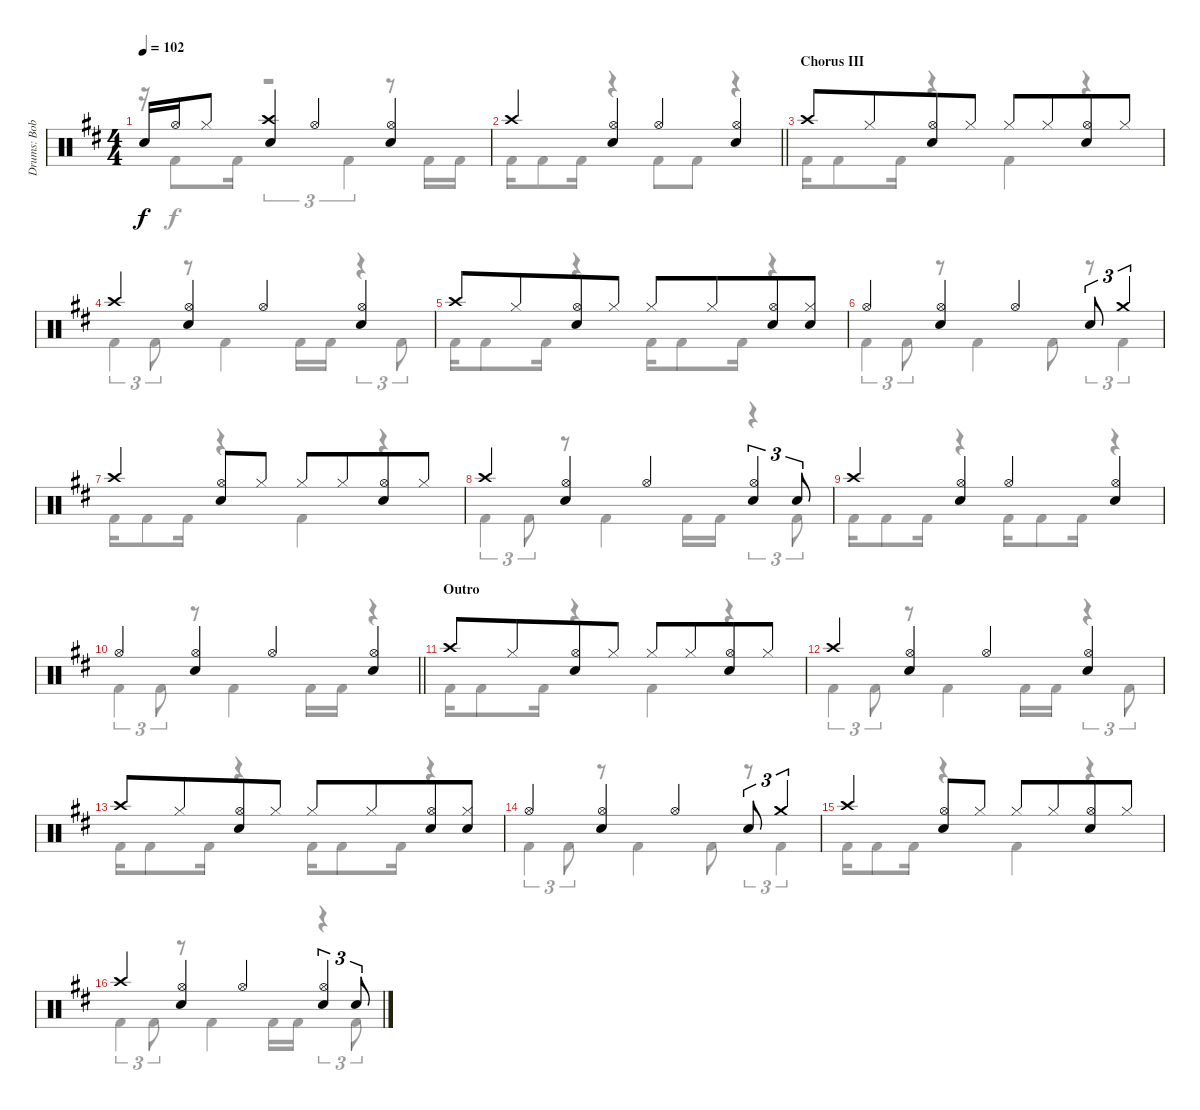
\track ("Drums: Bobby" "Drums: Bob") {instrument percussion}
\staff {score}
\articulation defaults
\voice
\ts (4 4)
\tempo 102
\clef neutral
\ks d "Snare (hit) 2".16{dy f} "Hi-Hat (open)".16 "Hi-Hat (closed)".8
("Crash high (hit)" "Snare (hit) 2").4 "Hi-Hat (open)".4 ("Hi-Hat (open)" "Snare (hit) 2").4 |
\barLineRight lightlight "Crash high (hit)".4
("Hi-Hat (open)" "Snare (hit) 2").4 "Hi-Hat (open)".4 ("Hi-Hat (open)" "Snare (hit) 2").4 |
\section ("" "Chorus III")
"Crash high (hit)".8 "Hi-Hat (closed)".8{beam merge} ("Hi-Hat (open)" "Snare (hit) 2").8 "Hi-Hat (closed)".8 "Hi-Hat (closed)".8 "Hi-Hat (closed)".8{beam merge} ("Hi-Hat (open)" "Snare (hit) 2").8 "Hi-Hat (closed)".8 |
"Crash high (hit)".4 ("Hi-Hat (open)" "Snare (hit) 2").4 "Hi-Hat (open)".4 ("Hi-Hat (open)" "Snare (hit) 2").4 |
"Crash high (hit)".8 "Hi-Hat (closed)".8{beam merge} ("Hi-Hat (open)" "Snare (hit) 2").8 "Hi-Hat (closed)".8 "Hi-Hat (closed)".8 "Hi-Hat (closed)".8{beam merge} ("Hi-Hat (open)" "Snare (hit) 2").8 ("Hi-Hat (closed)" "Snare (hit)").8 |
"Hi-Hat (open)".4 ("Hi-Hat (open)" "Snare (hit) 2").4 "Hi-Hat (open)".4 "Snare (hit) 2".8{tu (3 2)} "Crash medium (hit)".4{tu (3 2)} |
"Crash high (hit)".4{beam merge} ("Hi-Hat (open)" "Snare (hit) 2").8 "Hi-Hat (closed)".8 "Hi-Hat (closed)".8 "Hi-Hat (closed)".8{beam merge} ("Hi-Hat (open)" "Snare (hit) 2").8 "Hi-Hat (closed)".8 |
"Crash high (hit)".4 ("Hi-Hat (open)" "Snare (hit) 2").4 "Hi-Hat (open)".4 ("Hi-Hat (open)" "Snare (hit) 2").4{tu (3 2)} "Snare (hit) 2".8{tu (3 2)} |
"Crash high (hit)".4{beam merge} ("Hi-Hat (open)" "Snare (hit) 2").4 "Hi-Hat (open)".4{beam merge} ("Hi-Hat (open)" "Snare (hit) 2").4 |
\barLineRight lightlight "Hi-Hat (open)".4{beam merge}
("Hi-Hat (open)" "Snare (hit) 2").4 "Hi-Hat (open)".4{beam merge} ("Hi-Hat (open)" "Snare (hit) 2").4 |
\section ("" "Outro")
"Crash high (hit)".8 "Hi-Hat (closed)".8{beam merge} ("Hi-Hat (open)" "Snare (hit) 2").8 "Hi-Hat (closed)".8 "Hi-Hat (closed)".8 "Hi-Hat (closed)".8{beam merge} ("Hi-Hat (open)" "Snare (hit) 2").8 "Hi-Hat (closed)".8 |
"Crash high (hit)".4 ("Hi-Hat (open)" "Snare (hit) 2").4 "Hi-Hat (open)".4 ("Hi-Hat (open)" "Snare (hit) 2").4 |
"Crash high (hit)".8 "Hi-Hat (closed)".8{beam merge} ("Hi-Hat (open)" "Snare (hit) 2").8 "Hi-Hat (closed)".8 "Hi-Hat (closed)".8 "Hi-Hat (closed)".8{beam merge} ("Hi-Hat (open)" "Snare (hit) 2").8 ("Hi-Hat (closed)" "Snare (hit)").8 |
"Hi-Hat (open)".4 ("Hi-Hat (open)" "Snare (hit) 2").4 "Hi-Hat (open)".4 "Snare (hit) 2".8{tu (3 2)} "Crash medium (hit)".4{tu (3 2)} |
"Crash high (hit)".4{beam merge} ("Hi-Hat (open)" "Snare (hit) 2").8 "Hi-Hat (closed)".8 "Hi-Hat (closed)".8 "Hi-Hat (closed)".8{beam merge} ("Hi-Hat (open)" "Snare (hit) 2").8 "Hi-Hat (closed)".8 |
"Crash high (hit)".4 ("Hi-Hat (open)" "Snare (hit) 2").4 "Hi-Hat (open)".4 ("Hi-Hat (open)" "Snare (hit) 2").4{tu (3 2)} "Snare (hit) 2".8{tu (3 2)}
\voice
\clef neutral
\ottava regular
\simile none
\ks d
r.16{dy f} "Kick (hit) 2".8 "Kick (hit) 2".16 r.2{tu (3 2)} "Kick (hit) 2".4{tu (3 2)} r.8 "Kick (hit) 2".16 "Kick (hit) 2".16 |
\barLineRight lightlight "Kick (hit) 2".16 "Kick (hit) 2".8 "Kick (hit) 2".16
r.4 "Kick (hit) 2".8 "Kick (hit) 2".8 r.4 |
"Kick (hit) 2".16 "Kick (hit) 2".8 "Kick (hit) 2".16 r.4 "Kick (hit) 2".4 r.4 |
"Kick (hit) 2".4{tu (3 2)} "Kick (hit) 2".8{tu (3 2)} r.8 "Kick (hit) 2".4 "Kick (hit) 2".16 "Kick (hit) 2".16 r.4{tu (3 2)} "Kick (hit) 2".8{tu (3 2)} |
"Kick (hit) 2".16 "Kick (hit) 2".8 "Kick (hit) 2".16 r.4 "Kick (hit) 2".16 "Kick (hit) 2".8 "Kick (hit) 2".16 r.4 |
"Kick (hit) 2".4{tu (3 2)} "Kick (hit) 2".8{tu (3 2)} r.8 "Kick (hit) 2".4 "Kick (hit) 2".8 r.8{tu (3 2)} "Kick (hit) 2".4{tu (3 2)} |
"Kick (hit) 2".16 "Kick (hit) 2".8 "Kick (hit) 2".16 r.4 "Kick (hit) 2".4 r.4 |
"Kick (hit) 2".4{tu (3 2)} "Kick (hit) 2".8{tu (3 2)} r.8 "Kick (hit) 2".4 "Kick (hit) 2".16 "Kick (hit) 2".16 r.4{tu (3 2)} "Kick (hit) 2".8{tu (3 2)} |
"Kick (hit) 2".16 "Kick (hit) 2".8 "Kick (hit) 2".16 r.4 "Kick (hit) 2".16 "Kick (hit) 2".8 "Kick (hit) 2".16 r.4 |
\barLineRight lightlight "Kick (hit) 2".4{tu (3 2)} "Kick (hit) 2".8{tu (3 2)}
r.8 "Kick (hit) 2".4 "Kick (hit) 2".16 "Kick (hit) 2".16 r.4 |
"Kick (hit) 2".16 "Kick (hit) 2".8 "Kick (hit) 2".16 r.4 "Kick (hit) 2".4 r.4 |
"Kick (hit) 2".4{tu (3 2)} "Kick (hit) 2".8{tu (3 2)} r.8 "Kick (hit) 2".4 "Kick (hit) 2".16 "Kick (hit) 2".16 r.4{tu (3 2)} "Kick (hit) 2".8{tu (3 2)} |
"Kick (hit) 2".16 "Kick (hit) 2".8 "Kick (hit) 2".16 r.4 "Kick (hit) 2".16 "Kick (hit) 2".8 "Kick (hit) 2".16 r.4 |
"Kick (hit) 2".4{tu (3 2)} "Kick (hit) 2".8{tu (3 2)} r.8 "Kick (hit) 2".4 "Kick (hit) 2".8 r.8{tu (3 2)} "Kick (hit) 2".4{tu (3 2)} |
"Kick (hit) 2".16 "Kick (hit) 2".8 "Kick (hit) 2".16 r.4 "Kick (hit) 2".4 r.4 |
"Kick (hit) 2".4{tu (3 2)} "Kick (hit) 2".8{tu (3 2)} r.8 "Kick (hit) 2".4 "Kick (hit) 2".16 "Kick (hit) 2".16 r.4{tu (3 2)} "Kick (hit) 2".8{tu (3 2)}
